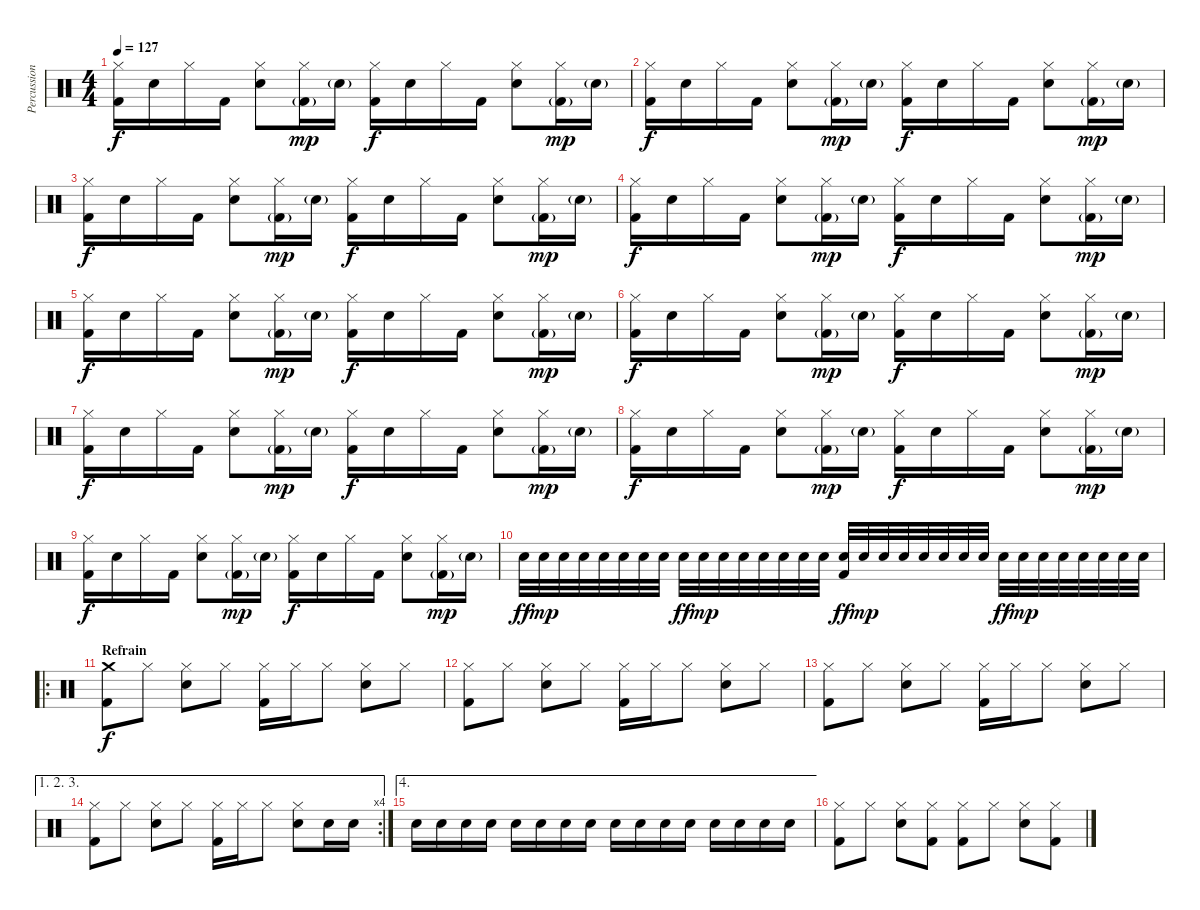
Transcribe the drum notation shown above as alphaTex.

\track ("Percussions" "Percussion") {instrument percussion}
\staff {score}
\articulation defaults
\ts (4 4)
\tempo 127
\clef neutral
\ks c
("Hi-Hat (closed)" "Kick (hit) 2").16{dy f} "Electric Snare (hit)".16 "Hi-Hat (closed)".16 "Kick (hit) 2".16 ("Hi-Hat (closed)" "Electric Snare (hit)").8 ("Hi-Hat (closed)" "Kick (hit) 2"{g}).16{dy mp} "Electric Snare (hit)"{g}.16 ("Hi-Hat (closed)" "Kick (hit) 2").16{dy f} "Electric Snare (hit)".16 "Hi-Hat (closed)".16 "Kick (hit) 2".16 ("Hi-Hat (closed)" "Electric Snare (hit)").8 ("Hi-Hat (closed)" "Kick (hit) 2"{g}).16{dy mp} "Electric Snare (hit)"{g}.16 |
("Hi-Hat (closed)" "Kick (hit) 2").16{dy f} "Electric Snare (hit)".16 "Hi-Hat (closed)".16 "Kick (hit) 2".16 ("Hi-Hat (closed)" "Electric Snare (hit)").8 ("Hi-Hat (closed)" "Kick (hit) 2"{g}).16{dy mp} "Electric Snare (hit)"{g}.16 ("Hi-Hat (closed)" "Kick (hit) 2").16{dy f} "Electric Snare (hit)".16 "Hi-Hat (closed)".16 "Kick (hit) 2".16 ("Hi-Hat (closed)" "Electric Snare (hit)").8 ("Hi-Hat (closed)" "Kick (hit) 2"{g}).16{dy mp} "Electric Snare (hit)"{g}.16 |
("Hi-Hat (closed)" "Kick (hit) 2").16{dy f} "Electric Snare (hit)".16 "Hi-Hat (closed)".16 "Kick (hit) 2".16 ("Hi-Hat (closed)" "Electric Snare (hit)").8 ("Hi-Hat (closed)" "Kick (hit) 2"{g}).16{dy mp} "Electric Snare (hit)"{g}.16 ("Hi-Hat (closed)" "Kick (hit) 2").16{dy f} "Electric Snare (hit)".16 "Hi-Hat (closed)".16 "Kick (hit) 2".16 ("Hi-Hat (closed)" "Electric Snare (hit)").8 ("Hi-Hat (closed)" "Kick (hit) 2"{g}).16{dy mp} "Electric Snare (hit)"{g}.16 |
("Hi-Hat (closed)" "Kick (hit) 2").16{dy f} "Electric Snare (hit)".16 "Hi-Hat (closed)".16 "Kick (hit) 2".16 ("Hi-Hat (closed)" "Electric Snare (hit)").8 ("Hi-Hat (closed)" "Kick (hit) 2"{g}).16{dy mp} "Electric Snare (hit)"{g}.16 ("Hi-Hat (closed)" "Kick (hit) 2").16{dy f} "Electric Snare (hit)".16 "Hi-Hat (closed)".16 "Kick (hit) 2".16 ("Hi-Hat (closed)" "Electric Snare (hit)").8 ("Hi-Hat (closed)" "Kick (hit) 2"{g}).16{dy mp} "Electric Snare (hit)"{g}.16 |
("Hi-Hat (closed)" "Kick (hit) 2").16{dy f} "Electric Snare (hit)".16 "Hi-Hat (closed)".16 "Kick (hit) 2".16 ("Hi-Hat (closed)" "Electric Snare (hit)").8 ("Hi-Hat (closed)" "Kick (hit) 2"{g}).16{dy mp} "Electric Snare (hit)"{g}.16 ("Hi-Hat (closed)" "Kick (hit) 2").16{dy f} "Electric Snare (hit)".16 "Hi-Hat (closed)".16 "Kick (hit) 2".16 ("Hi-Hat (closed)" "Electric Snare (hit)").8 ("Hi-Hat (closed)" "Kick (hit) 2"{g}).16{dy mp} "Electric Snare (hit)"{g}.16 |
("Hi-Hat (closed)" "Kick (hit) 2").16{dy f} "Electric Snare (hit)".16 "Hi-Hat (closed)".16 "Kick (hit) 2".16 ("Hi-Hat (closed)" "Electric Snare (hit)").8 ("Hi-Hat (closed)" "Kick (hit) 2"{g}).16{dy mp} "Electric Snare (hit)"{g}.16 ("Hi-Hat (closed)" "Kick (hit) 2").16{dy f} "Electric Snare (hit)".16 "Hi-Hat (closed)".16 "Kick (hit) 2".16 ("Hi-Hat (closed)" "Electric Snare (hit)").8 ("Hi-Hat (closed)" "Kick (hit) 2"{g}).16{dy mp} "Electric Snare (hit)"{g}.16 |
("Hi-Hat (closed)" "Kick (hit) 2").16{dy f} "Electric Snare (hit)".16 "Hi-Hat (closed)".16 "Kick (hit) 2".16 ("Hi-Hat (closed)" "Electric Snare (hit)").8 ("Hi-Hat (closed)" "Kick (hit) 2"{g}).16{dy mp} "Electric Snare (hit)"{g}.16 ("Hi-Hat (closed)" "Kick (hit) 2").16{dy f} "Electric Snare (hit)".16 "Hi-Hat (closed)".16 "Kick (hit) 2".16 ("Hi-Hat (closed)" "Electric Snare (hit)").8 ("Hi-Hat (closed)" "Kick (hit) 2"{g}).16{dy mp} "Electric Snare (hit)"{g}.16 |
("Hi-Hat (closed)" "Kick (hit) 2").16{dy f} "Electric Snare (hit)".16 "Hi-Hat (closed)".16 "Kick (hit) 2".16 ("Hi-Hat (closed)" "Electric Snare (hit)").8 ("Hi-Hat (closed)" "Kick (hit) 2"{g}).16{dy mp} "Electric Snare (hit)"{g}.16 ("Hi-Hat (closed)" "Kick (hit) 2").16{dy f} "Electric Snare (hit)".16 "Hi-Hat (closed)".16 "Kick (hit) 2".16 ("Hi-Hat (closed)" "Electric Snare (hit)").8 ("Hi-Hat (closed)" "Kick (hit) 2"{g}).16{dy mp} "Electric Snare (hit)"{g}.16 |
("Hi-Hat (closed)" "Kick (hit) 2").16{dy f} "Electric Snare (hit)".16 "Hi-Hat (closed)".16 "Kick (hit) 2".16 ("Hi-Hat (closed)" "Electric Snare (hit)").8 ("Hi-Hat (closed)" "Kick (hit) 2"{g}).16{dy mp} "Electric Snare (hit)"{g}.16 ("Hi-Hat (closed)" "Kick (hit) 2").16{dy f} "Electric Snare (hit)".16 "Hi-Hat (closed)".16 "Kick (hit) 2".16 ("Hi-Hat (closed)" "Electric Snare (hit)").8 ("Hi-Hat (closed)" "Kick (hit) 2"{g}).16{dy mp} "Electric Snare (hit)"{g}.16 |
"Electric Snare (hit)".32{dy ff} "Electric Snare (hit)".32{dy mp} "Electric Snare (hit)".32 "Electric Snare (hit)".32 "Electric Snare (hit)".32 "Electric Snare (hit)".32 "Electric Snare (hit)".32 "Electric Snare (hit)".32 "Electric Snare (hit)".32{dy ff} "Electric Snare (hit)".32{dy mp} "Electric Snare (hit)".32 "Electric Snare (hit)".32 "Electric Snare (hit)".32 "Electric Snare (hit)".32 "Electric Snare (hit)".32 "Electric Snare (hit)".32 ("Electric Snare (hit)" "Kick (hit) 2").32{dy ff} "Electric Snare (hit)".32{dy mp} "Electric Snare (hit)".32 "Electric Snare (hit)".32 "Electric Snare (hit)".32 "Electric Snare (hit)".32 "Electric Snare (hit)".32 "Electric Snare (hit)".32 "Electric Snare (hit)".32{dy ff} "Electric Snare (hit)".32{dy mp} "Electric Snare (hit)".32 "Electric Snare (hit)".32 "Electric Snare (hit)".32 "Electric Snare (hit)".32 "Electric Snare (hit)".32 "Electric Snare (hit)".32 |
\ro
\section ("" "Refrain")
("Crash medium (hit)" "Kick (hit) 2").8{dy f} "Hi-Hat (closed)".8 ("Hi-Hat (closed)" "Electric Snare (hit)").8 "Hi-Hat (closed)".8 ("Hi-Hat (closed)" "Kick (hit) 2").16 "Hi-Hat (closed)".16 "Hi-Hat (closed)".8 ("Hi-Hat (closed)" "Electric Snare (hit)").8 "Hi-Hat (closed)".8 |
("Hi-Hat (closed)" "Kick (hit) 2").8 "Hi-Hat (closed)".8 ("Hi-Hat (closed)" "Electric Snare (hit)").8 "Hi-Hat (closed)".8 ("Hi-Hat (closed)" "Kick (hit) 2").16 "Hi-Hat (closed)".16 "Hi-Hat (closed)".8 ("Hi-Hat (closed)" "Electric Snare (hit)").8 "Hi-Hat (closed)".8 |
("Hi-Hat (closed)" "Kick (hit) 2").8 "Hi-Hat (closed)".8 ("Hi-Hat (closed)" "Electric Snare (hit)").8 "Hi-Hat (closed)".8 ("Hi-Hat (closed)" "Kick (hit) 2").16 "Hi-Hat (closed)".16 "Hi-Hat (closed)".8 ("Hi-Hat (closed)" "Electric Snare (hit)").8 "Hi-Hat (closed)".8 |
\ae (1 2 3)
\rc 4
("Hi-Hat (closed)" "Kick (hit) 2").8 "Hi-Hat (closed)".8 ("Hi-Hat (closed)" "Electric Snare (hit)").8 "Hi-Hat (closed)".8 ("Hi-Hat (closed)" "Kick (hit) 2").16 "Hi-Hat (closed)".16 "Hi-Hat (closed)".8 ("Hi-Hat (closed)" "Electric Snare (hit)").8 "Electric Snare (hit)".16 "Electric Snare (hit)".16 |
\ae 4 "Electric Snare (hit)".16 "Electric Snare (hit)".16 "Electric Snare (hit)".16 "Electric Snare (hit)".16 "Electric Snare (hit)".16 "Electric Snare (hit)".16 "Electric Snare (hit)".16 "Electric Snare (hit)".16 "Electric Snare (hit)".16 "Electric Snare (hit)".16 "Electric Snare (hit)".16 "Electric Snare (hit)".16 "Electric Snare (hit)".16 "Electric Snare (hit)".16 "Electric Snare (hit)".16 "Electric Snare (hit)".16
|
("Hi-Hat (closed)" "Kick (hit) 2").8 "Hi-Hat (closed)".8 ("Hi-Hat (closed)" "Electric Snare (hit)").8 ("Hi-Hat (closed)" "Kick (hit) 2").8 ("Hi-Hat (closed)" "Kick (hit) 2").8 "Hi-Hat (closed)".8 ("Hi-Hat (closed)" "Electric Snare (hit)").8 ("Hi-Hat (closed)" "Kick (hit) 2").8
